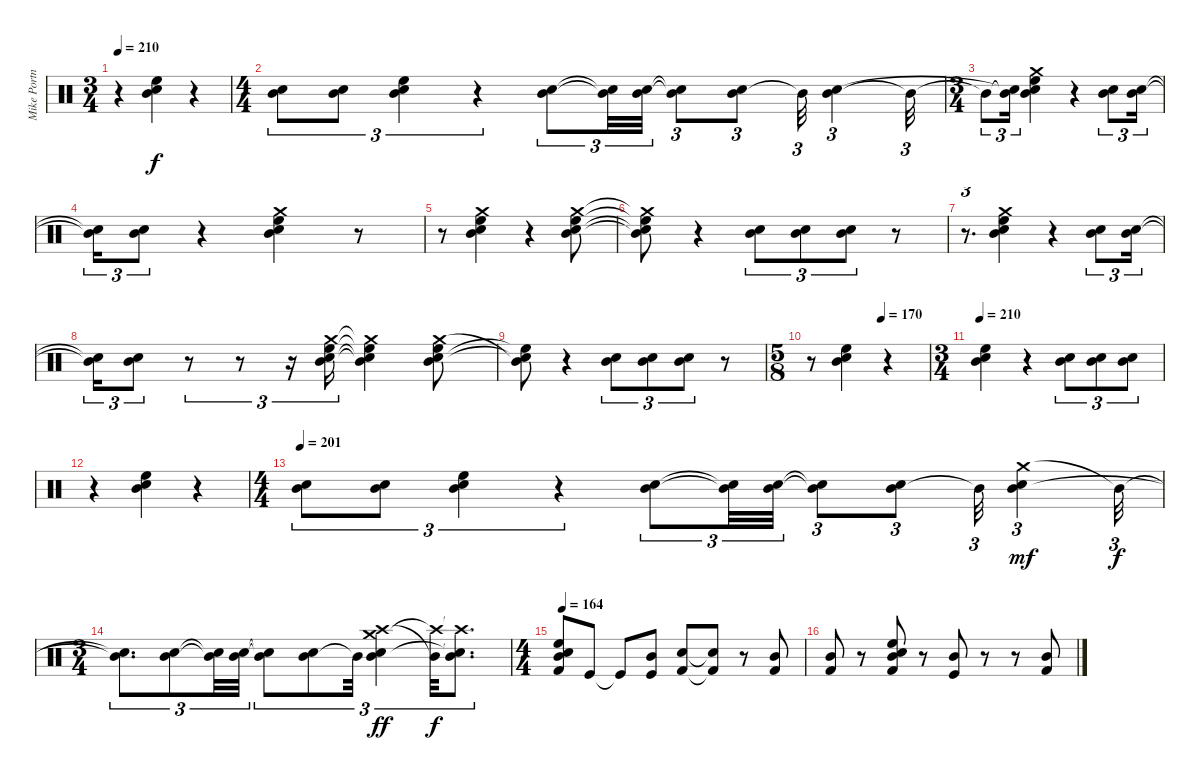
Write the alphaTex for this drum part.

\track ("Mike Portnoy" "Mike Portn") {instrument percussion}
\staff {score}
\articulation defaults
\ts (3 4)
\tempo 210
\clef neutral
\ks c
r.4{dy f} ("Mid Tom (hit)" "Electric Snare (hit)" "High Floor Tom (hit)").4 r.4 |
\ts (4 4)
("Mid Tom (hit)" "Electric Snare (hit)").8{tu (3 2)} ("Mid Tom (hit)" "Electric Snare (hit)").8{tu (3 2)} ("Mid Tom (hit)" "Electric Snare (hit)" "High Floor Tom (hit)").4{tu (3 2)} r.4{tu (3 2)} ("Mid Tom (hit)" "Electric Snare (hit)").8{tu (3 2) bd 120} ("Mid Tom (hit)"{t} "Electric Snare (hit)"{t}).32{tu (3 2)} ("Mid Tom (hit)" "Electric Snare (hit)").32{tu (3 2) bu 120} ("Mid Tom (hit)"{t} "Electric Snare (hit)"{t}).8{tu (3 2)} ("Mid Tom (hit)" "Electric Snare (hit)").8{tu (3 2) bd 120} "Mid Tom (hit)"{t}.32{tu (3 2)} ("Mid Tom (hit)" "Electric Snare (hit)").4{tu (3 2) bu 120} "Mid Tom (hit)"{t}.32{tu (3 2)} |
\ts (3 4)
"Mid Tom (hit)"{t}.8{tu (3 2)} ("Mid Tom (hit)"{t} "Electric Snare (hit)"{t}).16{tu (3 2)} ("Crash medium (hit)" "Mid Tom (hit)" "Electric Snare (hit)" "High Floor Tom (hit)").4 r.4 ("Mid Tom (hit)" "Electric Snare (hit)").8{tu (3 2)} ("Mid Tom (hit)" "Electric Snare (hit)").16{tu (3 2)} |
("Mid Tom (hit)"{t} "Electric Snare (hit)"{t}).16{tu (3 2)} ("Mid Tom (hit)" "Electric Snare (hit)").8{tu (3 2)} r.4 ("Crash medium (hit)" "Mid Tom (hit)" "Electric Snare (hit)" "High Floor Tom (hit)").4 r.8 |
r.8 ("Crash medium (hit)" "Mid Tom (hit)" "Electric Snare (hit)" "High Floor Tom (hit)").4 r.4 ("Crash medium (hit)" "Mid Tom (hit)" "Electric Snare (hit)" "High Floor Tom (hit)").8 |
("Crash medium (hit)"{t} "Mid Tom (hit)"{t} "Electric Snare (hit)"{t} "High Floor Tom (hit)"{t}).8 r.4 ("Mid Tom (hit)" "Electric Snare (hit)").8{tu (3 2)} ("Mid Tom (hit)" "Electric Snare (hit)").8{tu (3 2)} ("Mid Tom (hit)" "Electric Snare (hit)").8{tu (3 2)} r.8 |
r.8{d tu (3 2)} ("Crash medium (hit)" "Mid Tom (hit)" "Electric Snare (hit)" "High Floor Tom (hit)").4 r.4 ("Mid Tom (hit)" "Electric Snare (hit)").8{tu (3 2)} ("Mid Tom (hit)" "Electric Snare (hit)").16{tu (3 2)} |
("Mid Tom (hit)"{t} "Electric Snare (hit)"{t}).16{tu (3 2)} ("Mid Tom (hit)" "Electric Snare (hit)").8{tu (3 2)} r.8{tu (3 2)} r.8{tu (3 2)} r.16{tu (3 2)} ("Crash medium (hit)" "Mid Tom (hit)" "Electric Snare (hit)" "High Floor Tom (hit)").16{tu (3 2)} ("Crash medium (hit)"{t} "Mid Tom (hit)"{t} "Electric Snare (hit)"{t} "High Floor Tom (hit)"{t}).4 ("Crash medium (hit)" "Mid Tom (hit)" "Electric Snare (hit)" "High Floor Tom (hit)").8 |
("Mid Tom (hit)"{t} "Electric Snare (hit)"{t} "High Floor Tom (hit)"{t}).8 r.4 ("Mid Tom (hit)" "Electric Snare (hit)").8{tu (3 2)} ("Mid Tom (hit)" "Electric Snare (hit)").8{tu (3 2)} ("Mid Tom (hit)" "Electric Snare (hit)").8{tu (3 2)} r.8 |
\ts (5 8)
\tempo (170 0.6)
r.8 ("Mid Tom (hit)" "Electric Snare (hit)" "High Floor Tom (hit)").4 r.4 |
\ts (3 4)
\tempo 210
("Mid Tom (hit)" "Electric Snare (hit)" "High Floor Tom (hit)").4 r.4 ("Mid Tom (hit)" "Electric Snare (hit)").8{tu (3 2)} ("Mid Tom (hit)" "Electric Snare (hit)").8{tu (3 2)} ("Mid Tom (hit)" "Electric Snare (hit)").8{tu (3 2)} |
r.4 ("Mid Tom (hit)" "Electric Snare (hit)" "High Floor Tom (hit)").4 r.4 |
\ts (4 4)
\tempo 201
("Mid Tom (hit)" "Electric Snare (hit)").8{tu (3 2)} ("Mid Tom (hit)" "Electric Snare (hit)").8{tu (3 2)} ("Mid Tom (hit)" "Electric Snare (hit)" "High Floor Tom (hit)").4{tu (3 2)} r.4{tu (3 2)} ("Mid Tom (hit)" "Electric Snare (hit)").8{tu (3 2)} ("Mid Tom (hit)"{t} "Electric Snare (hit)"{t}).32{tu (3 2)} ("Mid Tom (hit)" "Electric Snare (hit)").32{tu (3 2)} ("Mid Tom (hit)"{t} "Electric Snare (hit)"{t}).8{tu (3 2)} ("Mid Tom (hit)" "Electric Snare (hit)").8{tu (3 2)} "Mid Tom (hit)"{t}.32{tu (3 2)} ("Crash medium (hit)" "Mid Tom (hit)" "Electric Snare (hit)").4{tu (3 2) dy mf} "Mid Tom (hit)"{t}.32{tu (3 2) dy f} |
\ts (3 4)
("Mid Tom (hit)"{t} "Electric Snare (hit)"{t}).8{d tu (3 2)} ("Mid Tom (hit)" "Electric Snare (hit)").8{tu (3 2)} ("Mid Tom (hit)"{t} "Electric Snare (hit)"{t}).32{tu (3 2)} ("Mid Tom (hit)" "Electric Snare (hit)").32{tu (3 2)} ("Mid Tom (hit)"{t} "Electric Snare (hit)"{t}).8{tu (3 2)} ("Mid Tom (hit)" "Electric Snare (hit)").8{tu (3 2)} "Mid Tom (hit)"{t}.32{tu (3 2)} ("Crash medium (hit)" "Crash high (hit)" "Mid Tom (hit)" "Electric Snare (hit)").4{tu (3 2) dy ff} ("Crash high (hit)"{t} "Mid Tom (hit)"{t}).32{tu (3 2) dy f} ("Crash high (hit)"{t} "Mid Tom (hit)"{t} "Electric Snare (hit)"{t}).8{d tu (3 2)} |
\ts (4 4)
\tempo 164
("Electric Snare (hit)" "Mid Tom (hit)" "Kick (hit) 2" "High Floor Tom (hit)").8 "Kick (hit)".8 "Kick (hit)"{t}.8 ("Mid Tom (hit)" "Kick (hit)").8 ("Electric Snare (hit)" "Kick (hit) 2").8 ("Electric Snare (hit)"{t} "Kick (hit) 2"{t}).8 r.8 ("Mid Tom (hit)" "Kick (hit) 2").8 |
("Mid Tom (hit)" "Kick (hit) 2").8 r.8 ("Electric Snare (hit)" "Mid Tom (hit)" "Kick (hit) 2" "High Floor Tom (hit)").8 r.8 ("Mid Tom (hit)" "Kick (hit)").8 r.8 r.8 ("Mid Tom (hit)" "Kick (hit) 2").8
